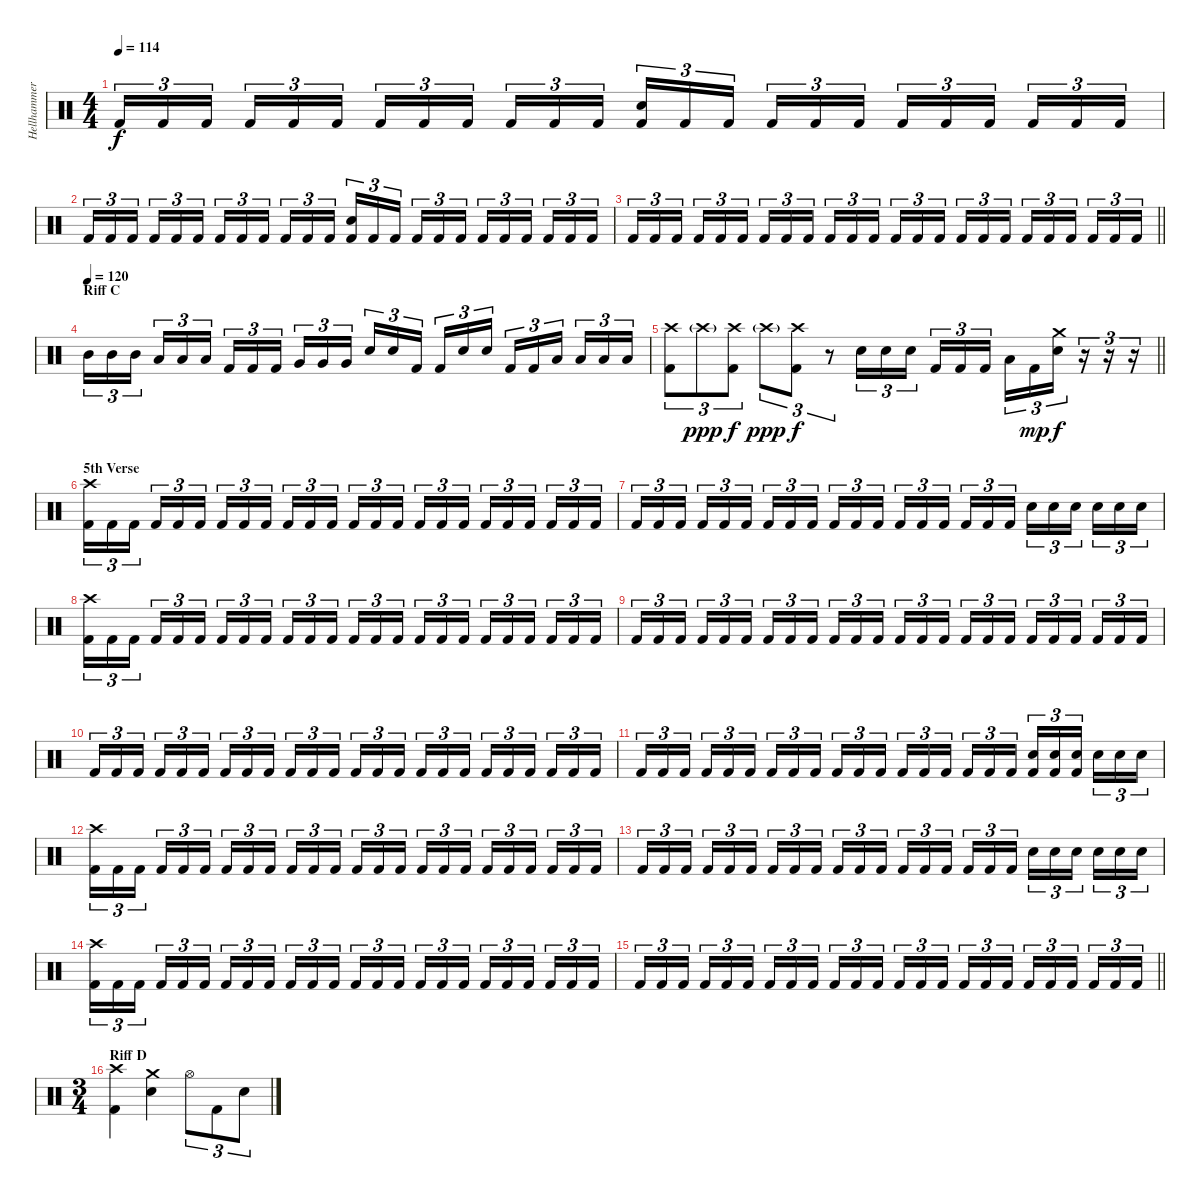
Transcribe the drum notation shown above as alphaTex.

\track ("Hellhammer" "Hellhammer") {instrument percussion}
\staff {score}
\articulation defaults
\ts (4 4)
\tempo 114
\clef neutral
\ks c "Kick (hit) 2".16{tu (3 2) dy f} "Kick (hit) 2".16{tu (3 2)} "Kick (hit) 2".16{tu (3 2) beam splitsecondary} "Kick (hit) 2".16{tu (3 2)} "Kick (hit) 2".16{tu (3 2)} "Kick (hit) 2".16{tu (3 2)} "Kick (hit) 2".16{tu (3 2)} "Kick (hit) 2".16{tu (3 2)} "Kick (hit) 2".16{tu (3 2) beam splitsecondary} "Kick (hit) 2".16{tu (3 2)} "Kick (hit) 2".16{tu (3 2)} "Kick (hit) 2".16{tu (3 2)}
("Snare (hit) 2" "Kick (hit) 2").16{tu (3 2)} "Kick (hit) 2".16{tu (3 2)} "Kick (hit) 2".16{tu (3 2) beam splitsecondary} "Kick (hit) 2".16{tu (3 2)} "Kick (hit) 2".16{tu (3 2)} "Kick (hit) 2".16{tu (3 2)} "Kick (hit) 2".16{tu (3 2)} "Kick (hit) 2".16{tu (3 2)} "Kick (hit) 2".16{tu (3 2) beam splitsecondary} "Kick (hit) 2".16{tu (3 2)} "Kick (hit) 2".16{tu (3 2)} "Kick (hit) 2".16{tu (3 2)} |
"Kick (hit) 2".16{tu (3 2)} "Kick (hit) 2".16{tu (3 2)} "Kick (hit) 2".16{tu (3 2) beam splitsecondary} "Kick (hit) 2".16{tu (3 2)} "Kick (hit) 2".16{tu (3 2)} "Kick (hit) 2".16{tu (3 2)} "Kick (hit) 2".16{tu (3 2)} "Kick (hit) 2".16{tu (3 2)} "Kick (hit) 2".16{tu (3 2) beam splitsecondary} "Kick (hit) 2".16{tu (3 2)} "Kick (hit) 2".16{tu (3 2)} "Kick (hit) 2".16{tu (3 2)} ("Snare (hit) 2" "Kick (hit) 2").16{tu (3 2)} "Kick (hit) 2".16{tu (3 2)} "Kick (hit) 2".16{tu (3 2) beam splitsecondary} "Kick (hit) 2".16{tu (3 2)} "Kick (hit) 2".16{tu (3 2)} "Kick (hit) 2".16{tu (3 2)} "Kick (hit) 2".16{tu (3 2)} "Kick (hit) 2".16{tu (3 2)} "Kick (hit) 2".16{tu (3 2) beam splitsecondary} "Kick (hit) 2".16{tu (3 2)} "Kick (hit) 2".16{tu (3 2)} "Kick (hit) 2".16{tu (3 2)} |
\barLineRight lightlight "Kick (hit) 2".16{tu (3 2)} "Kick (hit) 2".16{tu (3 2)} "Kick (hit) 2".16{tu (3 2) beam splitsecondary} "Kick (hit) 2".16{tu (3 2)} "Kick (hit) 2".16{tu (3 2)} "Kick (hit) 2".16{tu (3 2)} "Kick (hit) 2".16{tu (3 2)} "Kick (hit) 2".16{tu (3 2)} "Kick (hit) 2".16{tu (3 2) beam splitsecondary} "Kick (hit) 2".16{tu (3 2)} "Kick (hit) 2".16{tu (3 2)} "Kick (hit) 2".16{tu (3 2)} "Kick (hit) 2".16{tu (3 2)} "Kick (hit) 2".16{tu (3 2)} "Kick (hit) 2".16{tu (3 2) beam splitsecondary} "Kick (hit) 2".16{tu (3 2)} "Kick (hit) 2".16{tu (3 2)} "Kick (hit) 2".16{tu (3 2)} "Kick (hit) 2".16{tu (3 2)} "Kick (hit) 2".16{tu (3 2)} "Kick (hit) 2".16{tu (3 2) beam splitsecondary} "Kick (hit) 2".16{tu (3 2)} "Kick (hit) 2".16{tu (3 2)} "Kick (hit) 2".16{tu (3 2)}
|
\section ("" "Riff C")
\tempo (120)
"Mid Tom (hit)".16{tu (3 2)} "Mid Tom (hit)".16{tu (3 2)} "Mid Tom (hit)".16{tu (3 2) beam splitsecondary} "Low Tom (hit)".16{tu (3 2)} "Low Tom (hit)".16{tu (3 2)} "Low Tom (hit)".16{tu (3 2)} "Kick (hit) 2".16{tu (3 2)} "Kick (hit) 2".16{tu (3 2)} "Kick (hit) 2".16{tu (3 2) beam splitsecondary} "Very Low Tom (hit)".16{tu (3 2)} "Very Low Tom (hit)".16{tu (3 2)} "Very Low Tom (hit)".16{tu (3 2)} "Snare (hit) 2".16{tu (3 2)} "Snare (hit) 2".16{tu (3 2)} "Kick (hit) 2".16{tu (3 2) beam splitsecondary} "Kick (hit) 2".16{tu (3 2)} "Snare (hit) 2".16{tu (3 2)} "Snare (hit) 2".16{tu (3 2)} "Kick (hit) 2".16{tu (3 2)} "Kick (hit) 2".16{tu (3 2)} "Low Floor Tom (hit)".16{tu (3 2) beam splitsecondary} "Low Floor Tom (hit)".16{tu (3 2)} "Low Floor Tom (hit)".16{tu (3 2)} "Low Floor Tom (hit)".16{tu (3 2)} |
\barLineRight lightlight
("Crash high (hit)" "Kick (hit) 2").8{tu (3 2)} "Crash high (hit)"{g}.8{tu (3 2) dy ppp} ("Crash high (hit)" "Kick (hit) 2").8{tu (3 2) dy f} "Crash high (hit)"{g}.8{tu (3 2) dy ppp} ("Crash high (hit)" "Kick (hit) 2").8{tu (3 2) dy f} r.8{tu (3 2)} "Snare (hit) 2".16{tu (3 2)} "Snare (hit) 2".16{tu (3 2)} "Snare (hit) 2".16{tu (3 2) beam splitsecondary} "Kick (hit) 2".16{tu (3 2)} "Kick (hit) 2".16{tu (3 2)} "Kick (hit) 2".16{tu (3 2)} "Low Tom (hit)".16{tu (3 2)} "Kick (hit) 2".16{tu (3 2) dy mp} ("Crash medium (hit)" "Snare (hit) 2").16{tu (3 2) dy f} r.16{tu (3 2)} r.16{tu (3 2)} r.16{tu (3 2)} |
\section ("" "5th Verse")
("Crash high (hit)" "Kick (hit) 2").16{tu (3 2)} "Kick (hit) 2".16{tu (3 2)} "Kick (hit) 2".16{tu (3 2) beam splitsecondary} "Kick (hit) 2".16{tu (3 2)} "Kick (hit) 2".16{tu (3 2)} "Kick (hit) 2".16{tu (3 2)} "Kick (hit) 2".16{tu (3 2)} "Kick (hit) 2".16{tu (3 2)} "Kick (hit) 2".16{tu (3 2) beam splitsecondary} "Kick (hit) 2".16{tu (3 2)} "Kick (hit) 2".16{tu (3 2)} "Kick (hit) 2".16{tu (3 2)} "Kick (hit) 2".16{tu (3 2)} "Kick (hit) 2".16{tu (3 2)} "Kick (hit) 2".16{tu (3 2) beam splitsecondary} "Kick (hit) 2".16{tu (3 2)} "Kick (hit) 2".16{tu (3 2)} "Kick (hit) 2".16{tu (3 2)} "Kick (hit) 2".16{tu (3 2)} "Kick (hit) 2".16{tu (3 2)} "Kick (hit) 2".16{tu (3 2) beam splitsecondary} "Kick (hit) 2".16{tu (3 2)} "Kick (hit) 2".16{tu (3 2)} "Kick (hit) 2".16{tu (3 2)} |
"Kick (hit) 2".16{tu (3 2)} "Kick (hit) 2".16{tu (3 2)} "Kick (hit) 2".16{tu (3 2) beam splitsecondary} "Kick (hit) 2".16{tu (3 2)} "Kick (hit) 2".16{tu (3 2)} "Kick (hit) 2".16{tu (3 2)} "Kick (hit) 2".16{tu (3 2)} "Kick (hit) 2".16{tu (3 2)} "Kick (hit) 2".16{tu (3 2) beam splitsecondary} "Kick (hit) 2".16{tu (3 2)} "Kick (hit) 2".16{tu (3 2)} "Kick (hit) 2".16{tu (3 2)} "Kick (hit) 2".16{tu (3 2)} "Kick (hit) 2".16{tu (3 2)} "Kick (hit) 2".16{tu (3 2) beam splitsecondary} "Kick (hit) 2".16{tu (3 2)} "Kick (hit) 2".16{tu (3 2)} "Kick (hit) 2".16{tu (3 2)} "Snare (hit) 2".16{tu (3 2)} "Snare (hit) 2".16{tu (3 2)} "Snare (hit) 2".16{tu (3 2) beam splitsecondary} "Snare (hit) 2".16{tu (3 2)} "Snare (hit) 2".16{tu (3 2)} "Snare (hit) 2".16{tu (3 2)} |
("Crash high (hit)" "Kick (hit) 2").16{tu (3 2)} "Kick (hit) 2".16{tu (3 2)} "Kick (hit) 2".16{tu (3 2) beam splitsecondary} "Kick (hit) 2".16{tu (3 2)} "Kick (hit) 2".16{tu (3 2)} "Kick (hit) 2".16{tu (3 2)} "Kick (hit) 2".16{tu (3 2)} "Kick (hit) 2".16{tu (3 2)} "Kick (hit) 2".16{tu (3 2) beam splitsecondary} "Kick (hit) 2".16{tu (3 2)} "Kick (hit) 2".16{tu (3 2)} "Kick (hit) 2".16{tu (3 2)} "Kick (hit) 2".16{tu (3 2)} "Kick (hit) 2".16{tu (3 2)} "Kick (hit) 2".16{tu (3 2) beam splitsecondary} "Kick (hit) 2".16{tu (3 2)} "Kick (hit) 2".16{tu (3 2)} "Kick (hit) 2".16{tu (3 2)} "Kick (hit) 2".16{tu (3 2)} "Kick (hit) 2".16{tu (3 2)} "Kick (hit) 2".16{tu (3 2) beam splitsecondary} "Kick (hit) 2".16{tu (3 2)} "Kick (hit) 2".16{tu (3 2)} "Kick (hit) 2".16{tu (3 2)} |
"Kick (hit) 2".16{tu (3 2)} "Kick (hit) 2".16{tu (3 2)} "Kick (hit) 2".16{tu (3 2) beam splitsecondary} "Kick (hit) 2".16{tu (3 2)} "Kick (hit) 2".16{tu (3 2)} "Kick (hit) 2".16{tu (3 2)} "Kick (hit) 2".16{tu (3 2)} "Kick (hit) 2".16{tu (3 2)} "Kick (hit) 2".16{tu (3 2) beam splitsecondary} "Kick (hit) 2".16{tu (3 2)} "Kick (hit) 2".16{tu (3 2)} "Kick (hit) 2".16{tu (3 2)} "Kick (hit) 2".16{tu (3 2)} "Kick (hit) 2".16{tu (3 2)} "Kick (hit) 2".16{tu (3 2) beam splitsecondary} "Kick (hit) 2".16{tu (3 2)} "Kick (hit) 2".16{tu (3 2)} "Kick (hit) 2".16{tu (3 2)} "Kick (hit) 2".16{tu (3 2)} "Kick (hit) 2".16{tu (3 2)} "Kick (hit) 2".16{tu (3 2) beam splitsecondary} "Kick (hit) 2".16{tu (3 2)} "Kick (hit) 2".16{tu (3 2)} "Kick (hit) 2".16{tu (3 2)} |
"Kick (hit) 2".16{tu (3 2)} "Kick (hit) 2".16{tu (3 2)} "Kick (hit) 2".16{tu (3 2) beam splitsecondary} "Kick (hit) 2".16{tu (3 2)} "Kick (hit) 2".16{tu (3 2)} "Kick (hit) 2".16{tu (3 2)} "Kick (hit) 2".16{tu (3 2)} "Kick (hit) 2".16{tu (3 2)} "Kick (hit) 2".16{tu (3 2) beam splitsecondary} "Kick (hit) 2".16{tu (3 2)} "Kick (hit) 2".16{tu (3 2)} "Kick (hit) 2".16{tu (3 2)} "Kick (hit) 2".16{tu (3 2)} "Kick (hit) 2".16{tu (3 2)} "Kick (hit) 2".16{tu (3 2) beam splitsecondary} "Kick (hit) 2".16{tu (3 2)} "Kick (hit) 2".16{tu (3 2)} "Kick (hit) 2".16{tu (3 2)} "Kick (hit) 2".16{tu (3 2)} "Kick (hit) 2".16{tu (3 2)} "Kick (hit) 2".16{tu (3 2) beam splitsecondary} "Kick (hit) 2".16{tu (3 2)} "Kick (hit) 2".16{tu (3 2)} "Kick (hit) 2".16{tu (3 2)} |
"Kick (hit) 2".16{tu (3 2)} "Kick (hit) 2".16{tu (3 2)} "Kick (hit) 2".16{tu (3 2) beam splitsecondary} "Kick (hit) 2".16{tu (3 2)} "Kick (hit) 2".16{tu (3 2)} "Kick (hit) 2".16{tu (3 2)} "Kick (hit) 2".16{tu (3 2)} "Kick (hit) 2".16{tu (3 2)} "Kick (hit) 2".16{tu (3 2) beam splitsecondary} "Kick (hit) 2".16{tu (3 2)} "Kick (hit) 2".16{tu (3 2)} "Kick (hit) 2".16{tu (3 2)} "Kick (hit) 2".16{tu (3 2)} "Kick (hit) 2".16{tu (3 2)} "Kick (hit) 2".16{tu (3 2) beam splitsecondary} "Kick (hit) 2".16{tu (3 2)} "Kick (hit) 2".16{tu (3 2)} "Kick (hit) 2".16{tu (3 2)} ("Snare (hit) 2" "Kick (hit) 2").16{tu (3 2)} ("Snare (hit) 2" "Kick (hit) 2").16{tu (3 2)} ("Snare (hit) 2" "Kick (hit) 2").16{tu (3 2) beam splitsecondary} "Snare (hit) 2".16{tu (3 2)} "Snare (hit) 2".16{tu (3 2)} "Snare (hit) 2".16{tu (3 2)} |
("Crash high (hit)" "Kick (hit) 2").16{tu (3 2)} "Kick (hit) 2".16{tu (3 2)} "Kick (hit) 2".16{tu (3 2) beam splitsecondary} "Kick (hit) 2".16{tu (3 2)} "Kick (hit) 2".16{tu (3 2)} "Kick (hit) 2".16{tu (3 2)} "Kick (hit) 2".16{tu (3 2)} "Kick (hit) 2".16{tu (3 2)} "Kick (hit) 2".16{tu (3 2) beam splitsecondary} "Kick (hit) 2".16{tu (3 2)} "Kick (hit) 2".16{tu (3 2)} "Kick (hit) 2".16{tu (3 2)} "Kick (hit) 2".16{tu (3 2)} "Kick (hit) 2".16{tu (3 2)} "Kick (hit) 2".16{tu (3 2) beam splitsecondary} "Kick (hit) 2".16{tu (3 2)} "Kick (hit) 2".16{tu (3 2)} "Kick (hit) 2".16{tu (3 2)} "Kick (hit) 2".16{tu (3 2)} "Kick (hit) 2".16{tu (3 2)} "Kick (hit) 2".16{tu (3 2) beam splitsecondary} "Kick (hit) 2".16{tu (3 2)} "Kick (hit) 2".16{tu (3 2)} "Kick (hit) 2".16{tu (3 2)} |
"Kick (hit) 2".16{tu (3 2)} "Kick (hit) 2".16{tu (3 2)} "Kick (hit) 2".16{tu (3 2) beam splitsecondary} "Kick (hit) 2".16{tu (3 2)} "Kick (hit) 2".16{tu (3 2)} "Kick (hit) 2".16{tu (3 2)} "Kick (hit) 2".16{tu (3 2)} "Kick (hit) 2".16{tu (3 2)} "Kick (hit) 2".16{tu (3 2) beam splitsecondary} "Kick (hit) 2".16{tu (3 2)} "Kick (hit) 2".16{tu (3 2)} "Kick (hit) 2".16{tu (3 2)} "Kick (hit) 2".16{tu (3 2)} "Kick (hit) 2".16{tu (3 2)} "Kick (hit) 2".16{tu (3 2) beam splitsecondary} "Kick (hit) 2".16{tu (3 2)} "Kick (hit) 2".16{tu (3 2)} "Kick (hit) 2".16{tu (3 2)} "Snare (hit) 2".16{tu (3 2)} "Snare (hit) 2".16{tu (3 2)} "Snare (hit) 2".16{tu (3 2) beam splitsecondary} "Snare (hit) 2".16{tu (3 2)} "Snare (hit) 2".16{tu (3 2)} "Snare (hit) 2".16{tu (3 2)} |
("Crash high (hit)" "Kick (hit) 2").16{tu (3 2)} "Kick (hit) 2".16{tu (3 2)} "Kick (hit) 2".16{tu (3 2) beam splitsecondary} "Kick (hit) 2".16{tu (3 2)} "Kick (hit) 2".16{tu (3 2)} "Kick (hit) 2".16{tu (3 2)} "Kick (hit) 2".16{tu (3 2)} "Kick (hit) 2".16{tu (3 2)} "Kick (hit) 2".16{tu (3 2) beam splitsecondary} "Kick (hit) 2".16{tu (3 2)} "Kick (hit) 2".16{tu (3 2)} "Kick (hit) 2".16{tu (3 2)} "Kick (hit) 2".16{tu (3 2)} "Kick (hit) 2".16{tu (3 2)} "Kick (hit) 2".16{tu (3 2) beam splitsecondary} "Kick (hit) 2".16{tu (3 2)} "Kick (hit) 2".16{tu (3 2)} "Kick (hit) 2".16{tu (3 2)} "Kick (hit) 2".16{tu (3 2)} "Kick (hit) 2".16{tu (3 2)} "Kick (hit) 2".16{tu (3 2) beam splitsecondary} "Kick (hit) 2".16{tu (3 2)} "Kick (hit) 2".16{tu (3 2)} "Kick (hit) 2".16{tu (3 2)} |
\barLineRight lightlight "Kick (hit) 2".16{tu (3 2)} "Kick (hit) 2".16{tu (3 2)} "Kick (hit) 2".16{tu (3 2) beam splitsecondary} "Kick (hit) 2".16{tu (3 2)} "Kick (hit) 2".16{tu (3 2)} "Kick (hit) 2".16{tu (3 2)} "Kick (hit) 2".16{tu (3 2)} "Kick (hit) 2".16{tu (3 2)} "Kick (hit) 2".16{tu (3 2) beam splitsecondary} "Kick (hit) 2".16{tu (3 2)} "Kick (hit) 2".16{tu (3 2)} "Kick (hit) 2".16{tu (3 2)} "Kick (hit) 2".16{tu (3 2)} "Kick (hit) 2".16{tu (3 2)} "Kick (hit) 2".16{tu (3 2) beam splitsecondary} "Kick (hit) 2".16{tu (3 2)} "Kick (hit) 2".16{tu (3 2)} "Kick (hit) 2".16{tu (3 2)} "Kick (hit) 2".16{tu (3 2)} "Kick (hit) 2".16{tu (3 2)} "Kick (hit) 2".16{tu (3 2) beam splitsecondary} "Kick (hit) 2".16{tu (3 2)} "Kick (hit) 2".16{tu (3 2)} "Kick (hit) 2".16{tu (3 2)}
|
\ts (3 4)
\section ("" "Riff D")
("Crash high (hit)" "Kick (hit) 2").4 ("Crash medium (hit)" "Snare (hit) 2").4 "Hi-Hat (open)".8{tu (3 2)} "Kick (hit) 2".8{tu (3 2)} "Snare (hit) 2".8{tu (3 2)}
